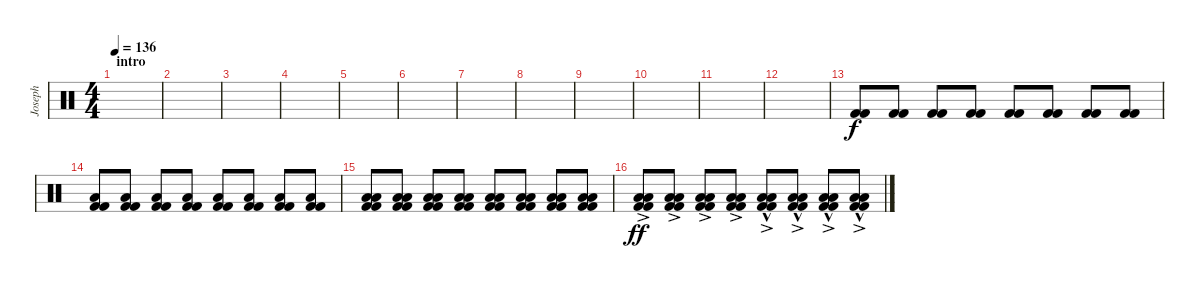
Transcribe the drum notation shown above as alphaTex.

\track ("Joseph" "Joseph") {instrument percussion}
\staff {score}
\articulation defaults
\ts (4 4)
\section ("" "intro")
\tempo 136
\clef neutral
\ks c
|
|
|
|
|
|
|
|
|
|
|
|
("Kick (hit) 2" "Kick (hit) 2").8{volume 1} ("Kick (hit) 2" "Kick (hit) 2").8{volume 13} ("Kick (hit) 2" "Kick (hit) 2").8 ("Kick (hit) 2" "Kick (hit) 2").8 ("Kick (hit) 2" "Kick (hit) 2").8 ("Kick (hit) 2" "Kick (hit) 2").8 ("Kick (hit) 2" "Kick (hit) 2").8 ("Kick (hit) 2" "Kick (hit) 2").8 |
("Low Floor Tom (hit)" "Kick (hit) 2" "Kick (hit) 2").8 ("Low Floor Tom (hit)" "Kick (hit) 2" "Kick (hit) 2").8 ("Low Floor Tom (hit)" "Kick (hit) 2" "Kick (hit) 2").8 ("Low Floor Tom (hit)" "Kick (hit) 2" "Kick (hit) 2").8 ("Low Floor Tom (hit)" "Kick (hit) 2" "Kick (hit) 2").8 ("Low Floor Tom (hit)" "Kick (hit) 2" "Kick (hit) 2").8 ("Low Floor Tom (hit)" "Kick (hit) 2" "Kick (hit) 2").8 ("Low Floor Tom (hit)" "Kick (hit) 2" "Kick (hit) 2").8 |
("Low Tom (hit)" "Low Floor Tom (hit)" "Kick (hit) 2" "Kick (hit) 2").8 ("Low Tom (hit)" "Low Floor Tom (hit)" "Kick (hit) 2" "Kick (hit) 2").8 ("Low Tom (hit)" "Low Floor Tom (hit)" "Kick (hit) 2" "Kick (hit) 2").8 ("Low Tom (hit)" "Low Floor Tom (hit)" "Kick (hit) 2" "Kick (hit) 2").8 ("Low Tom (hit)" "Low Floor Tom (hit)" "Kick (hit) 2" "Kick (hit) 2").8 ("Low Tom (hit)" "Low Floor Tom (hit)" "Kick (hit) 2" "Kick (hit) 2").8 ("Low Tom (hit)" "Low Floor Tom (hit)" "Kick (hit) 2" "Kick (hit) 2").8 ("Low Tom (hit)" "Low Floor Tom (hit)" "Kick (hit) 2" "Kick (hit) 2").8 |
("Low Tom (hit)"{ac} "Low Floor Tom (hit)" "Kick (hit) 2" "Kick (hit) 2").8{dy ff} ("Low Tom (hit)"{ac} "Low Floor Tom (hit)" "Kick (hit) 2" "Kick (hit) 2").8 ("Low Tom (hit)"{ac} "Low Floor Tom (hit)" "Kick (hit) 2" "Kick (hit) 2").8 ("Low Tom (hit)"{ac} "Low Floor Tom (hit)" "Kick (hit) 2" "Kick (hit) 2").8 ("Low Tom (hit)"{hac} "Low Floor Tom (hit)"{ac} "Kick (hit) 2" "Kick (hit) 2").8 ("Low Tom (hit)"{hac} "Low Floor Tom (hit)"{ac} "Kick (hit) 2" "Kick (hit) 2").8 ("Low Tom (hit)"{hac} "Low Floor Tom (hit)"{ac} "Kick (hit) 2" "Kick (hit) 2").8 ("Low Tom (hit)"{hac} "Low Floor Tom (hit)"{ac} "Kick (hit) 2" "Kick (hit) 2").8
